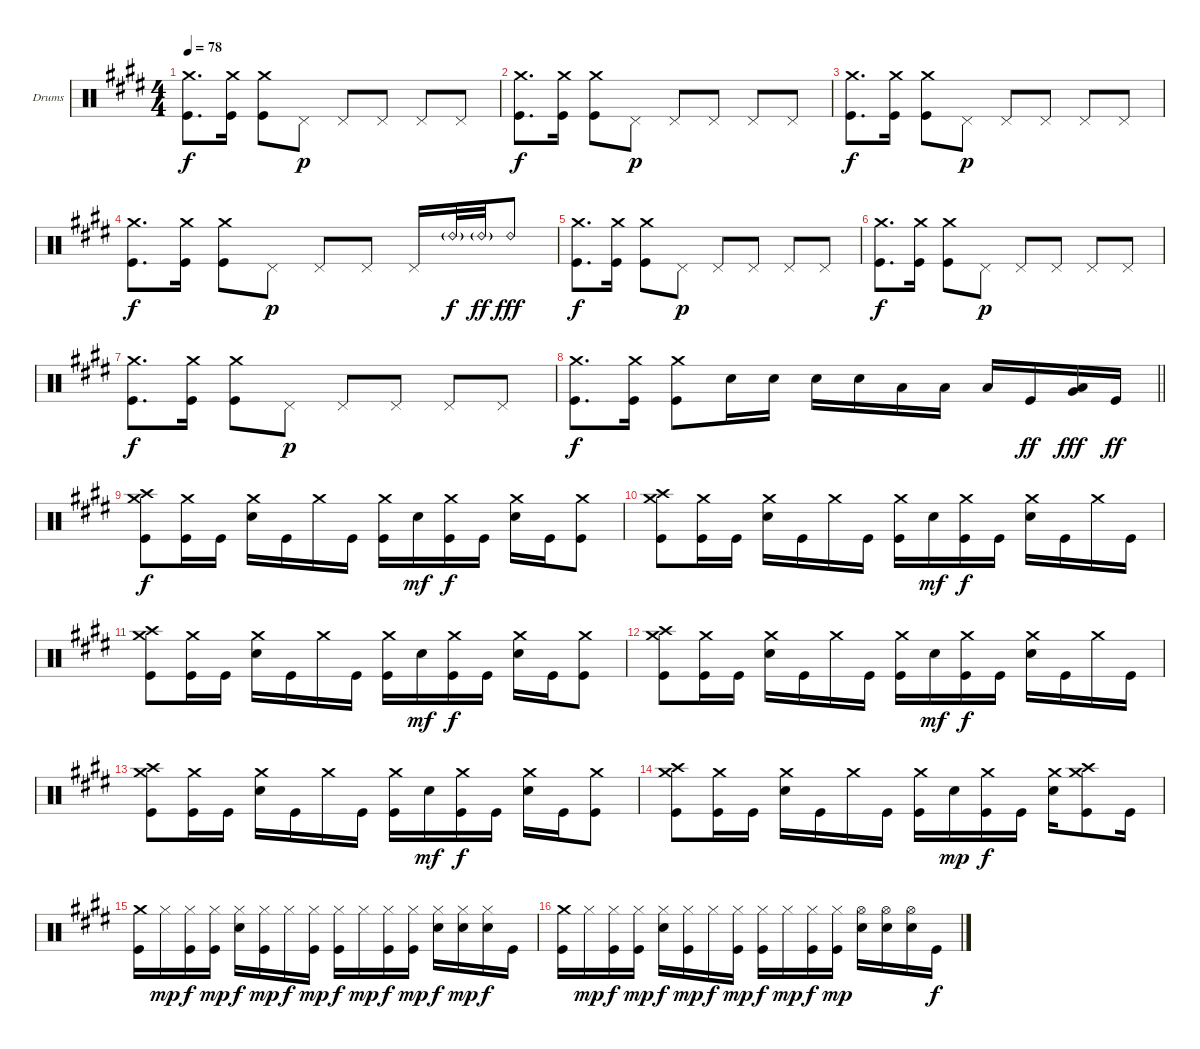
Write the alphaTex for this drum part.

\bracketExtendMode groupsimilarinstruments
\firstSystemTrackNameOrientation horizontal
\otherSystemsTrackNameOrientation horizontal
\track ("Drumkit" "Drums") {instrument percussion}
\staff {score}
\articulation defaults
\ts (4 4)
\tempo 78
\clef neutral
\ks c#minor
("Crash medium (hit)" "Kick (hit)").8{d dy f} ("Crash medium (hit)" "Kick (hit)").16 ("Crash medium (hit)" "Kick (hit)").8 "Pedal Hi-Hat (hit)".8{dy p} "Pedal Hi-Hat (hit)".8 "Pedal Hi-Hat (hit)".8 "Pedal Hi-Hat (hit)".8 "Pedal Hi-Hat (hit)".8 |
("Crash medium (hit)" "Kick (hit)").8{d dy f} ("Crash medium (hit)" "Kick (hit)").16 ("Crash medium (hit)" "Kick (hit)").8 "Pedal Hi-Hat (hit)".8{dy p} "Pedal Hi-Hat (hit)".8 "Pedal Hi-Hat (hit)".8 "Pedal Hi-Hat (hit)".8 "Pedal Hi-Hat (hit)".8 |
("Crash medium (hit)" "Kick (hit)").8{d dy f} ("Crash medium (hit)" "Kick (hit)").16 ("Crash medium (hit)" "Kick (hit)").8 "Pedal Hi-Hat (hit)".8{dy p} "Pedal Hi-Hat (hit)".8 "Pedal Hi-Hat (hit)".8 "Pedal Hi-Hat (hit)".8 "Pedal Hi-Hat (hit)".8 |
("Crash medium (hit)" "Kick (hit)").8{d dy f} ("Crash medium (hit)" "Kick (hit)").16 ("Crash medium (hit)" "Kick (hit)").8 "Pedal Hi-Hat (hit)".8{dy p} "Pedal Hi-Hat (hit)".8 "Pedal Hi-Hat (hit)".8 "Pedal Hi-Hat (hit)".16 "Ride (bell) 2"{g}.32{dy f} "Ride (bell) 2"{g}.32{dy ff} "Ride (bell) 2".8{dy fff} |
("Crash medium (hit)" "Kick (hit)").8{d dy f} ("Crash medium (hit)" "Kick (hit)").16 ("Crash medium (hit)" "Kick (hit)").8 "Pedal Hi-Hat (hit)".8{dy p} "Pedal Hi-Hat (hit)".8 "Pedal Hi-Hat (hit)".8 "Pedal Hi-Hat (hit)".8 "Pedal Hi-Hat (hit)".8 |
("Crash medium (hit)" "Kick (hit)").8{d dy f} ("Crash medium (hit)" "Kick (hit)").16 ("Crash medium (hit)" "Kick (hit)").8 "Pedal Hi-Hat (hit)".8{dy p} "Pedal Hi-Hat (hit)".8 "Pedal Hi-Hat (hit)".8 "Pedal Hi-Hat (hit)".8 "Pedal Hi-Hat (hit)".8 |
("Crash medium (hit)" "Kick (hit)").8{d dy f} ("Crash medium (hit)" "Kick (hit)").16 ("Crash medium (hit)" "Kick (hit)").8 "Pedal Hi-Hat (hit)".8{dy p} "Pedal Hi-Hat (hit)".8 "Pedal Hi-Hat (hit)".8 "Pedal Hi-Hat (hit)".8 "Pedal Hi-Hat (hit)".8 |
\barLineRight lightlight
("Crash medium (hit)" "Kick (hit)").8{d dy f} ("Crash medium (hit)" "Kick (hit)").16 ("Crash medium (hit)" "Kick (hit)").8 "Snare (hit) 2".16 "Snare (hit) 2".16 "Snare (hit) 2".16 "Snare (hit) 2".16 "Low Tom (hit)".16 "Low Tom (hit)".16 "Low Tom (hit)".16 "Kick (hit)".16{dy ff} ("Low Tom (hit)" "Very Low Tom (hit)").16{dy fff} "Kick (hit)".16{dy ff} |
("Crash medium (hit)" "Crash high (hit)" "Kick (hit)").8{dy f} ("Crash medium (hit)" "Kick (hit)").16 "Kick (hit)".16 ("Crash medium (hit)" "Snare (hit) 2").16 "Kick (hit)".16 "Crash medium (hit)".16 "Kick (hit)".16 ("Crash medium (hit)" "Kick (hit)").16 "Snare (hit) 2".16{dy mf} ("Crash medium (hit)" "Kick (hit)").16{dy f} "Kick (hit)".16 ("Crash medium (hit)" "Snare (hit) 2").16 "Kick (hit)".16 ("Crash medium (hit)" "Kick (hit)").8 |
("Crash medium (hit)" "Crash high (hit)" "Kick (hit)").8 ("Crash medium (hit)" "Kick (hit)").16 "Kick (hit)".16 ("Crash medium (hit)" "Snare (hit) 2").16 "Kick (hit)".16 "Crash medium (hit)".16 "Kick (hit)".16 ("Crash medium (hit)" "Kick (hit)").16 "Snare (hit) 2".16{dy mf} ("Crash medium (hit)" "Kick (hit)").16{dy f} "Kick (hit)".16 ("Crash medium (hit)" "Snare (hit) 2").16 "Kick (hit)".16 "Crash medium (hit)".16 "Kick (hit)".16 |
("Crash medium (hit)" "Crash high (hit)" "Kick (hit)").8 ("Crash medium (hit)" "Kick (hit)").16 "Kick (hit)".16 ("Crash medium (hit)" "Snare (hit) 2").16 "Kick (hit)".16 "Crash medium (hit)".16 "Kick (hit)".16 ("Crash medium (hit)" "Kick (hit)").16 "Snare (hit) 2".16{dy mf} ("Crash medium (hit)" "Kick (hit)").16{dy f} "Kick (hit)".16 ("Crash medium (hit)" "Snare (hit) 2").16 "Kick (hit)".16 ("Crash medium (hit)" "Kick (hit)").8 |
("Crash medium (hit)" "Crash high (hit)" "Kick (hit)").8 ("Crash medium (hit)" "Kick (hit)").16 "Kick (hit)".16 ("Crash medium (hit)" "Snare (hit) 2").16 "Kick (hit)".16 "Crash medium (hit)".16 "Kick (hit)".16 ("Crash medium (hit)" "Kick (hit)").16 "Snare (hit) 2".16{dy mf} ("Crash medium (hit)" "Kick (hit)").16{dy f} "Kick (hit)".16 ("Crash medium (hit)" "Snare (hit) 2").16 "Kick (hit)".16 "Crash medium (hit)".16 "Kick (hit)".16 |
("Crash medium (hit)" "Crash high (hit)" "Kick (hit)").8 ("Crash medium (hit)" "Kick (hit)").16 "Kick (hit)".16 ("Crash medium (hit)" "Snare (hit) 2").16 "Kick (hit)".16 "Crash medium (hit)".16 "Kick (hit)".16 ("Crash medium (hit)" "Kick (hit)").16 "Snare (hit) 2".16{dy mf} ("Crash medium (hit)" "Kick (hit)").16{dy f} "Kick (hit)".16 ("Crash medium (hit)" "Snare (hit) 2").16 "Kick (hit)".16 ("Crash medium (hit)" "Kick (hit)").8 |
("Crash medium (hit)" "Crash high (hit)" "Kick (hit)").8 ("Crash medium (hit)" "Kick (hit)").16 "Kick (hit)".16 ("Crash medium (hit)" "Snare (hit) 2").16 "Kick (hit)".16 "Crash medium (hit)".16 "Kick (hit)".16 ("Crash medium (hit)" "Kick (hit)").16 "Snare (hit) 2".16{dy mp} ("Crash medium (hit)" "Kick (hit)").16{dy f} "Kick (hit)".16 ("Crash medium (hit)" "Snare (hit) 2").16 ("Crash medium (hit)" "Crash high (hit)" "Kick (hit)").8 "Kick (hit)".16 |
("Crash medium (hit)" "Kick (hit)").16 "Hi-Hat (closed)".16{dy mp} ("Hi-Hat (closed)" "Kick (hit)").16{dy f} ("Hi-Hat (closed)" "Kick (hit)").16{dy mp} ("Hi-Hat (closed)" "Snare (hit) 2").16{dy f} ("Hi-Hat (closed)" "Kick (hit)").16{dy mp} "Hi-Hat (closed)".16{dy f} ("Hi-Hat (closed)" "Kick (hit)").16{dy mp} ("Hi-Hat (closed)" "Kick (hit)").16{dy f} "Hi-Hat (closed)".16{dy mp} ("Hi-Hat (closed)" "Kick (hit)").16{dy f} ("Hi-Hat (closed)" "Kick (hit)").16{dy mp} ("Hi-Hat (closed)" "Snare (hit) 2").16{dy f} ("Hi-Hat (closed)" "Snare (hit) 2").16{dy mp} ("Hi-Hat (closed)" "Snare (hit) 2").16{dy f} "Kick (hit)".16 |
("Crash medium (hit)" "Kick (hit)").16 "Hi-Hat (closed)".16{dy mp} ("Hi-Hat (closed)" "Kick (hit)").16{dy f} ("Hi-Hat (closed)" "Kick (hit)").16{dy mp} ("Hi-Hat (closed)" "Snare (hit) 2").16{dy f} ("Hi-Hat (closed)" "Kick (hit)").16{dy mp} "Hi-Hat (closed)".16{dy f} ("Hi-Hat (closed)" "Kick (hit)").16{dy mp} ("Hi-Hat (closed)" "Kick (hit)").16{dy f} "Hi-Hat (closed)".16{dy mp} ("Hi-Hat (closed)" "Kick (hit)").16{dy f} ("Hi-Hat (closed)" "Kick (hit)").16{dy mp} ("Hi-Hat (open)" "Snare (hit) 2").16 ("Hi-Hat (open)" "Snare (hit) 2").16 ("Hi-Hat (open)" "Snare (hit) 2").16 "Kick (hit)".16{dy f}
